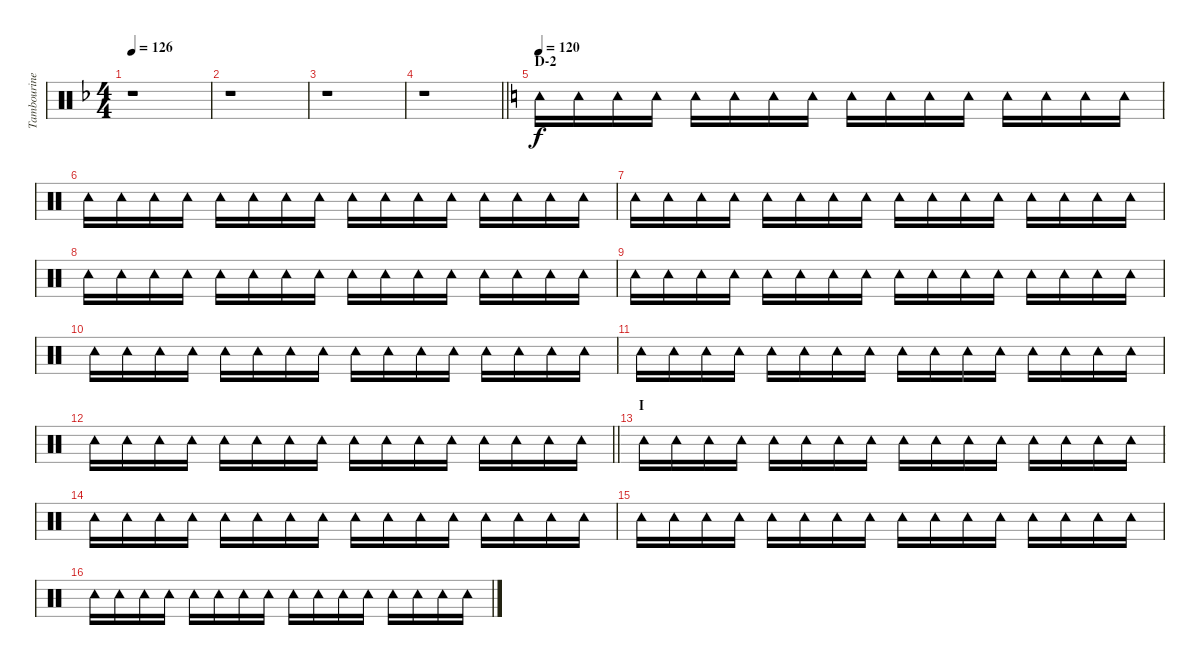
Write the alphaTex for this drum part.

\track ("Tambourine" "Tambourine") {instrument percussion}
\staff {score}
\articulation defaults
\ts (4 4)
\tempo 126
\clef neutral
\ks f
r.1{dy f} |
r.1 |
r.1 |
\barLineRight lightlight
r.1 |
\section ("" "D-2")
\tempo 120
\ks c "Tambourine (hit)".16 "Tambourine (hit)".16 "Tambourine (hit)".16 "Tambourine (hit)".16 "Tambourine (hit)".16 "Tambourine (hit)".16 "Tambourine (hit)".16 "Tambourine (hit)".16 "Tambourine (hit)".16 "Tambourine (hit)".16 "Tambourine (hit)".16 "Tambourine (hit)".16 "Tambourine (hit)".16 "Tambourine (hit)".16 "Tambourine (hit)".16 "Tambourine (hit)".16
|
"Tambourine (hit)".16 "Tambourine (hit)".16 "Tambourine (hit)".16 "Tambourine (hit)".16 "Tambourine (hit)".16 "Tambourine (hit)".16 "Tambourine (hit)".16 "Tambourine (hit)".16 "Tambourine (hit)".16 "Tambourine (hit)".16 "Tambourine (hit)".16 "Tambourine (hit)".16 "Tambourine (hit)".16 "Tambourine (hit)".16 "Tambourine (hit)".16 "Tambourine (hit)".16 |
"Tambourine (hit)".16 "Tambourine (hit)".16 "Tambourine (hit)".16 "Tambourine (hit)".16 "Tambourine (hit)".16 "Tambourine (hit)".16 "Tambourine (hit)".16 "Tambourine (hit)".16 "Tambourine (hit)".16 "Tambourine (hit)".16 "Tambourine (hit)".16 "Tambourine (hit)".16 "Tambourine (hit)".16 "Tambourine (hit)".16 "Tambourine (hit)".16 "Tambourine (hit)".16 |
"Tambourine (hit)".16 "Tambourine (hit)".16 "Tambourine (hit)".16 "Tambourine (hit)".16 "Tambourine (hit)".16 "Tambourine (hit)".16 "Tambourine (hit)".16 "Tambourine (hit)".16 "Tambourine (hit)".16 "Tambourine (hit)".16 "Tambourine (hit)".16 "Tambourine (hit)".16 "Tambourine (hit)".16 "Tambourine (hit)".16 "Tambourine (hit)".16 "Tambourine (hit)".16 |
"Tambourine (hit)".16 "Tambourine (hit)".16 "Tambourine (hit)".16 "Tambourine (hit)".16 "Tambourine (hit)".16 "Tambourine (hit)".16 "Tambourine (hit)".16 "Tambourine (hit)".16 "Tambourine (hit)".16 "Tambourine (hit)".16 "Tambourine (hit)".16 "Tambourine (hit)".16 "Tambourine (hit)".16 "Tambourine (hit)".16 "Tambourine (hit)".16 "Tambourine (hit)".16 |
"Tambourine (hit)".16 "Tambourine (hit)".16 "Tambourine (hit)".16 "Tambourine (hit)".16 "Tambourine (hit)".16 "Tambourine (hit)".16 "Tambourine (hit)".16 "Tambourine (hit)".16 "Tambourine (hit)".16 "Tambourine (hit)".16 "Tambourine (hit)".16 "Tambourine (hit)".16 "Tambourine (hit)".16 "Tambourine (hit)".16 "Tambourine (hit)".16 "Tambourine (hit)".16 |
"Tambourine (hit)".16 "Tambourine (hit)".16 "Tambourine (hit)".16 "Tambourine (hit)".16 "Tambourine (hit)".16 "Tambourine (hit)".16 "Tambourine (hit)".16 "Tambourine (hit)".16 "Tambourine (hit)".16 "Tambourine (hit)".16 "Tambourine (hit)".16 "Tambourine (hit)".16 "Tambourine (hit)".16 "Tambourine (hit)".16 "Tambourine (hit)".16 "Tambourine (hit)".16 |
\barLineRight lightlight "Tambourine (hit)".16 "Tambourine (hit)".16 "Tambourine (hit)".16 "Tambourine (hit)".16 "Tambourine (hit)".16 "Tambourine (hit)".16 "Tambourine (hit)".16 "Tambourine (hit)".16 "Tambourine (hit)".16 "Tambourine (hit)".16 "Tambourine (hit)".16 "Tambourine (hit)".16 "Tambourine (hit)".16 "Tambourine (hit)".16 "Tambourine (hit)".16 "Tambourine (hit)".16
|
\section ("" "I")
"Tambourine (hit)".16 "Tambourine (hit)".16 "Tambourine (hit)".16 "Tambourine (hit)".16 "Tambourine (hit)".16 "Tambourine (hit)".16 "Tambourine (hit)".16 "Tambourine (hit)".16 "Tambourine (hit)".16 "Tambourine (hit)".16 "Tambourine (hit)".16 "Tambourine (hit)".16 "Tambourine (hit)".16 "Tambourine (hit)".16 "Tambourine (hit)".16 "Tambourine (hit)".16 |
"Tambourine (hit)".16 "Tambourine (hit)".16 "Tambourine (hit)".16 "Tambourine (hit)".16 "Tambourine (hit)".16 "Tambourine (hit)".16 "Tambourine (hit)".16 "Tambourine (hit)".16 "Tambourine (hit)".16 "Tambourine (hit)".16 "Tambourine (hit)".16 "Tambourine (hit)".16 "Tambourine (hit)".16 "Tambourine (hit)".16 "Tambourine (hit)".16 "Tambourine (hit)".16 |
"Tambourine (hit)".16 "Tambourine (hit)".16 "Tambourine (hit)".16 "Tambourine (hit)".16 "Tambourine (hit)".16 "Tambourine (hit)".16 "Tambourine (hit)".16 "Tambourine (hit)".16 "Tambourine (hit)".16 "Tambourine (hit)".16 "Tambourine (hit)".16 "Tambourine (hit)".16 "Tambourine (hit)".16 "Tambourine (hit)".16 "Tambourine (hit)".16 "Tambourine (hit)".16 |
"Tambourine (hit)".16 "Tambourine (hit)".16 "Tambourine (hit)".16 "Tambourine (hit)".16 "Tambourine (hit)".16 "Tambourine (hit)".16 "Tambourine (hit)".16 "Tambourine (hit)".16 "Tambourine (hit)".16 "Tambourine (hit)".16 "Tambourine (hit)".16 "Tambourine (hit)".16 "Tambourine (hit)".16 "Tambourine (hit)".16 "Tambourine (hit)".16 "Tambourine (hit)".16
